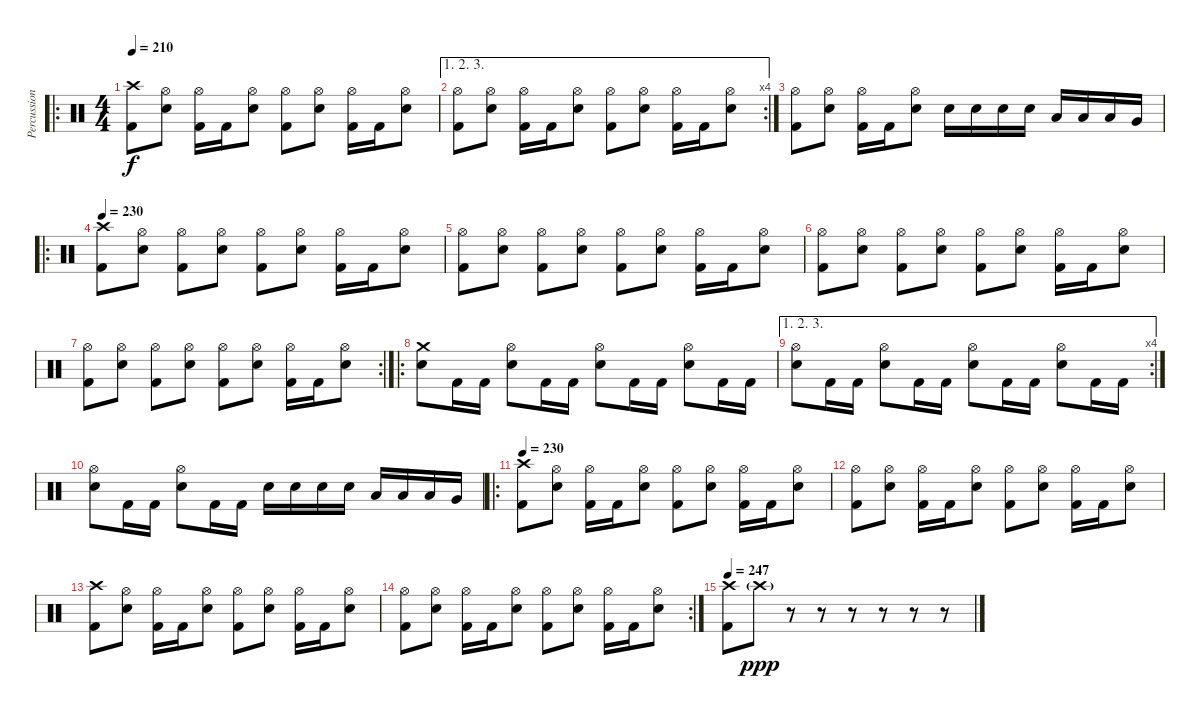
\track ("Percussion" "Percussion") {instrument percussion}
\staff {score}
\articulation defaults
\ro
\ts (4 4)
\tempo 210
\clef neutral
\ks c
("Crash high (hit)" "Kick (hit) 2").8{dy f} ("Hi-Hat (open)" "Snare (hit) 2").8 ("Hi-Hat (open)" "Kick (hit) 2").16 "Kick (hit) 2".16 ("Hi-Hat (open)" "Snare (hit) 2").8 ("Hi-Hat (open)" "Kick (hit) 2").8 ("Hi-Hat (open)" "Snare (hit) 2").8 ("Hi-Hat (open)" "Kick (hit) 2").16 "Kick (hit) 2".16 ("Hi-Hat (open)" "Snare (hit) 2").8 |
\ae (1 2 3)
\rc 4
("Hi-Hat (open)" "Kick (hit) 2").8 ("Hi-Hat (open)" "Snare (hit) 2").8 ("Hi-Hat (open)" "Kick (hit) 2").16 "Kick (hit) 2".16 ("Hi-Hat (open)" "Snare (hit) 2").8 ("Hi-Hat (open)" "Kick (hit) 2").8 ("Hi-Hat (open)" "Snare (hit) 2").8 ("Hi-Hat (open)" "Kick (hit) 2").16 "Kick (hit) 2".16 ("Hi-Hat (open)" "Snare (hit) 2").8 |
("Hi-Hat (open)" "Kick (hit) 2").8 ("Hi-Hat (open)" "Snare (hit) 2").8 ("Hi-Hat (open)" "Kick (hit) 2").16 "Kick (hit) 2".16 ("Hi-Hat (open)" "Snare (hit) 2").8 "Snare (hit) 2".16 "Snare (hit) 2".16 "Snare (hit) 2".16 "Snare (hit) 2".16 "Low Tom (hit)".16 "Low Tom (hit)".16 "Low Tom (hit)".16 "Very Low Tom (hit)".16 |
\ro
\tempo 230
("Crash high (hit)" "Kick (hit) 2").8 ("Hi-Hat (open)" "Snare (hit) 2").8 ("Hi-Hat (open)" "Kick (hit) 2").8 ("Hi-Hat (open)" "Snare (hit) 2").8 ("Hi-Hat (open)" "Kick (hit) 2").8 ("Hi-Hat (open)" "Snare (hit) 2").8 ("Hi-Hat (open)" "Kick (hit) 2").16 "Kick (hit) 2".16 ("Hi-Hat (open)" "Snare (hit) 2").8 |
("Hi-Hat (open)" "Kick (hit) 2").8 ("Hi-Hat (open)" "Snare (hit) 2").8 ("Hi-Hat (open)" "Kick (hit) 2").8 ("Hi-Hat (open)" "Snare (hit) 2").8 ("Hi-Hat (open)" "Kick (hit) 2").8 ("Hi-Hat (open)" "Snare (hit) 2").8 ("Hi-Hat (open)" "Kick (hit) 2").16 "Kick (hit) 2".16 ("Hi-Hat (open)" "Snare (hit) 2").8 |
("Hi-Hat (open)" "Kick (hit) 2").8 ("Hi-Hat (open)" "Snare (hit) 2").8 ("Hi-Hat (open)" "Kick (hit) 2").8 ("Hi-Hat (open)" "Snare (hit) 2").8 ("Hi-Hat (open)" "Kick (hit) 2").8 ("Hi-Hat (open)" "Snare (hit) 2").8 ("Hi-Hat (open)" "Kick (hit) 2").16 "Kick (hit) 2".16 ("Hi-Hat (open)" "Snare (hit) 2").8 |
\rc 2
("Hi-Hat (open)" "Kick (hit) 2").8 ("Hi-Hat (open)" "Snare (hit) 2").8 ("Hi-Hat (open)" "Kick (hit) 2").8 ("Hi-Hat (open)" "Snare (hit) 2").8 ("Hi-Hat (open)" "Kick (hit) 2").8 ("Hi-Hat (open)" "Snare (hit) 2").8 ("Hi-Hat (open)" "Kick (hit) 2").16 "Kick (hit) 2".16 ("Hi-Hat (open)" "Snare (hit) 2").8 |
\ro
("Crash medium (hit)" "Snare (hit) 2").8 "Kick (hit) 2".16 "Kick (hit) 2".16 ("Hi-Hat (open)" "Snare (hit) 2").8 "Kick (hit) 2".16 "Kick (hit) 2".16 ("Hi-Hat (open)" "Snare (hit) 2").8 "Kick (hit) 2".16 "Kick (hit) 2".16 ("Hi-Hat (open)" "Snare (hit) 2").8 "Kick (hit) 2".16 "Kick (hit) 2".16 |
\ae (1 2 3)
\rc 4
("Hi-Hat (open)" "Snare (hit) 2").8 "Kick (hit) 2".16 "Kick (hit) 2".16 ("Hi-Hat (open)" "Snare (hit) 2").8 "Kick (hit) 2".16 "Kick (hit) 2".16 ("Hi-Hat (open)" "Snare (hit) 2").8 "Kick (hit) 2".16 "Kick (hit) 2".16 ("Hi-Hat (open)" "Snare (hit) 2").8 "Kick (hit) 2".16 "Kick (hit) 2".16 |
("Hi-Hat (open)" "Snare (hit) 2").8 "Kick (hit) 2".16 "Kick (hit) 2".16 ("Hi-Hat (open)" "Snare (hit) 2").8 "Kick (hit) 2".16 "Kick (hit) 2".16 "Snare (hit) 2".16 "Snare (hit) 2".16 "Snare (hit) 2".16 "Snare (hit) 2".16 "Low Tom (hit)".16 "Low Tom (hit)".16 "Low Tom (hit)".16 "Very Low Tom (hit)".16 |
\ro
\tempo 230
("Crash high (hit)" "Kick (hit) 2").8 ("Hi-Hat (open)" "Snare (hit) 2").8 ("Hi-Hat (open)" "Kick (hit) 2").16 "Kick (hit) 2".16 ("Hi-Hat (open)" "Snare (hit) 2").8 ("Hi-Hat (open)" "Kick (hit) 2").8 ("Hi-Hat (open)" "Snare (hit) 2").8 ("Hi-Hat (open)" "Kick (hit) 2").16 "Kick (hit) 2".16 ("Hi-Hat (open)" "Snare (hit) 2").8 |
("Hi-Hat (open)" "Kick (hit) 2").8 ("Hi-Hat (open)" "Snare (hit) 2").8 ("Hi-Hat (open)" "Kick (hit) 2").16 "Kick (hit) 2".16 ("Hi-Hat (open)" "Snare (hit) 2").8 ("Hi-Hat (open)" "Kick (hit) 2").8 ("Hi-Hat (open)" "Snare (hit) 2").8 ("Hi-Hat (open)" "Kick (hit) 2").16 "Kick (hit) 2".16 ("Hi-Hat (open)" "Snare (hit) 2").8 |
("Crash high (hit)" "Kick (hit) 2").8 ("Hi-Hat (open)" "Snare (hit) 2").8 ("Hi-Hat (open)" "Kick (hit) 2").16 "Kick (hit) 2".16 ("Hi-Hat (open)" "Snare (hit) 2").8 ("Hi-Hat (open)" "Kick (hit) 2").8 ("Hi-Hat (open)" "Snare (hit) 2").8 ("Hi-Hat (open)" "Kick (hit) 2").16 "Kick (hit) 2".16 ("Hi-Hat (open)" "Snare (hit) 2").8 |
\rc 2
("Hi-Hat (open)" "Kick (hit) 2").8 ("Hi-Hat (open)" "Snare (hit) 2").8 ("Hi-Hat (open)" "Kick (hit) 2").16 "Kick (hit) 2".16 ("Hi-Hat (open)" "Snare (hit) 2").8 ("Hi-Hat (open)" "Kick (hit) 2").8 ("Hi-Hat (open)" "Snare (hit) 2").8 ("Hi-Hat (open)" "Kick (hit) 2").16 "Kick (hit) 2".16 ("Hi-Hat (open)" "Snare (hit) 2").8 |
\tempo 247
("Crash high (hit)" "Kick (hit) 2").8 "Crash high (hit)"{g}.8{dy ppp} r.8 r.8 r.8 r.8 r.8 r.8
